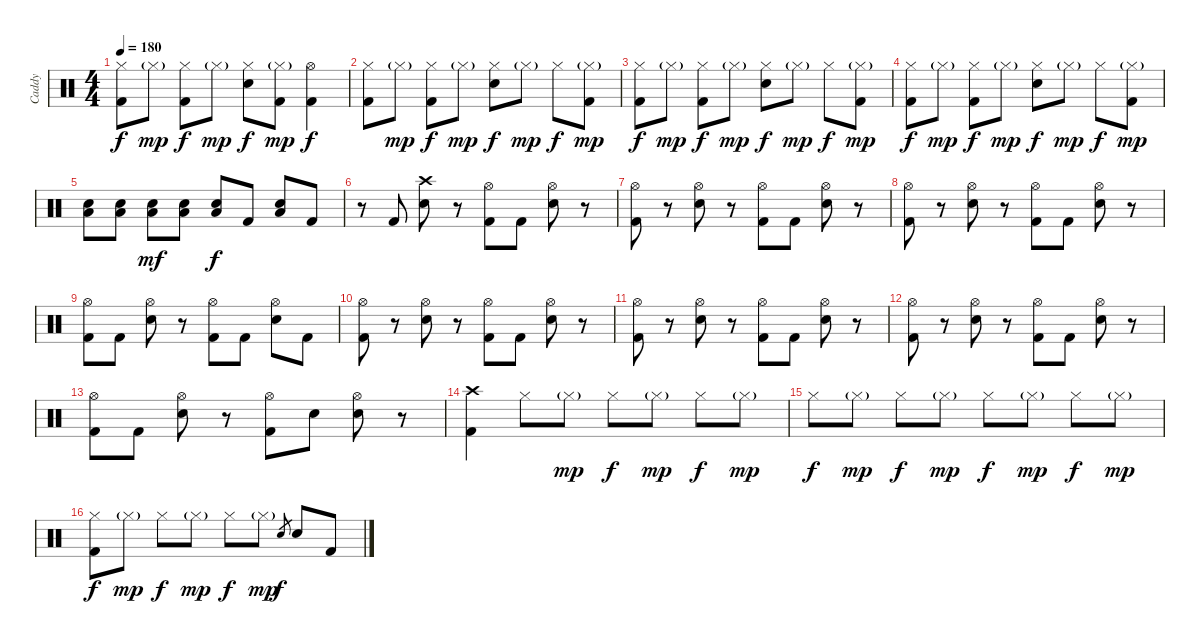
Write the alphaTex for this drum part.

\track ("Caddy" "Caddy") {instrument percussion}
\staff {score}
\articulation defaults
\ts (4 4)
\tempo 180
\clef neutral
\ks c
("Hi-Hat (closed)" "Kick (hit) 2").8{dy f} "Hi-Hat (closed)"{g}.8{dy mp} ("Hi-Hat (closed)" "Kick (hit) 2").8{dy f} "Hi-Hat (closed)"{g}.8{dy mp} ("Hi-Hat (closed)" "Electric Snare (hit)").8{dy f} ("Hi-Hat (closed)"{g} "Kick (hit) 2").8{dy mp} ("Hi-Hat (open)" "Kick (hit) 2").4{dy f} |
("Hi-Hat (closed)" "Kick (hit) 2").8 "Hi-Hat (closed)"{g}.8{dy mp} ("Hi-Hat (closed)" "Kick (hit) 2").8{dy f} "Hi-Hat (closed)"{g}.8{dy mp} ("Hi-Hat (closed)" "Electric Snare (hit)").8{dy f} "Hi-Hat (closed)"{g}.8{dy mp} "Hi-Hat (closed)".8{dy f} ("Hi-Hat (closed)"{g} "Kick (hit) 2").8{dy mp} |
("Hi-Hat (closed)" "Kick (hit) 2").8{dy f} "Hi-Hat (closed)"{g}.8{dy mp} ("Hi-Hat (closed)" "Kick (hit) 2").8{dy f} "Hi-Hat (closed)"{g}.8{dy mp} ("Hi-Hat (closed)" "Electric Snare (hit)").8{dy f} "Hi-Hat (closed)"{g}.8{dy mp} "Hi-Hat (closed)".8{dy f} ("Hi-Hat (closed)"{g} "Kick (hit) 2").8{dy mp} |
("Hi-Hat (closed)" "Kick (hit) 2").8{dy f} "Hi-Hat (closed)"{g}.8{dy mp} ("Hi-Hat (closed)" "Kick (hit) 2").8{dy f} "Hi-Hat (closed)"{g}.8{dy mp} ("Hi-Hat (closed)" "Electric Snare (hit)").8{dy f} "Hi-Hat (closed)"{g}.8{dy mp} "Hi-Hat (closed)".8{dy f} ("Hi-Hat (closed)"{g} "Kick (hit) 2").8{dy mp} |
("Electric Snare (hit)" "Low Floor Tom (hit)").8 ("Electric Snare (hit)" "Low Floor Tom (hit)").8 ("Electric Snare (hit)" "Low Floor Tom (hit)").8{dy mf} ("Electric Snare (hit)" "Low Floor Tom (hit)").8 ("Electric Snare (hit)" "Low Floor Tom (hit)").8{dy f} "Kick (hit) 2".8 ("Electric Snare (hit)" "Low Floor Tom (hit)").8 "Kick (hit) 2".8 |
r.8 "Kick (hit) 2".8 ("Crash high (hit)" "Electric Snare (hit)").8 r.8 ("Hi-Hat (open)" "Kick (hit) 2").8 "Kick (hit) 2".8 ("Hi-Hat (open)" "Electric Snare (hit)").8 r.8 |
("Hi-Hat (open)" "Kick (hit) 2").8 r.8 ("Hi-Hat (open)" "Electric Snare (hit)").8 r.8 ("Hi-Hat (open)" "Kick (hit) 2").8 "Kick (hit) 2".8 ("Hi-Hat (open)" "Electric Snare (hit)").8 r.8 |
("Hi-Hat (open)" "Kick (hit) 2").8 r.8 ("Hi-Hat (open)" "Electric Snare (hit)").8 r.8 ("Hi-Hat (open)" "Kick (hit) 2").8 "Kick (hit) 2".8 ("Hi-Hat (open)" "Electric Snare (hit)").8 r.8 |
("Hi-Hat (open)" "Kick (hit) 2").8 "Kick (hit) 2".8 ("Hi-Hat (open)" "Electric Snare (hit)").8 r.8 ("Hi-Hat (open)" "Kick (hit) 2").8 "Kick (hit) 2".8 ("Hi-Hat (open)" "Electric Snare (hit)").8 "Kick (hit) 2".8 |
("Hi-Hat (open)" "Kick (hit) 2").8 r.8 ("Hi-Hat (open)" "Electric Snare (hit)").8 r.8 ("Hi-Hat (open)" "Kick (hit) 2").8 "Kick (hit) 2".8 ("Hi-Hat (open)" "Electric Snare (hit)").8 r.8 |
("Hi-Hat (open)" "Kick (hit) 2").8 r.8 ("Hi-Hat (open)" "Electric Snare (hit)").8 r.8 ("Hi-Hat (open)" "Kick (hit) 2").8 "Kick (hit) 2".8 ("Hi-Hat (open)" "Electric Snare (hit)").8 r.8 |
("Hi-Hat (open)" "Kick (hit) 2").8 r.8 ("Hi-Hat (open)" "Electric Snare (hit)").8 r.8 ("Hi-Hat (open)" "Kick (hit) 2").8 "Kick (hit) 2".8 ("Hi-Hat (open)" "Electric Snare (hit)").8 r.8 |
("Hi-Hat (open)" "Kick (hit) 2").8 "Kick (hit) 2".8 ("Hi-Hat (open)" "Electric Snare (hit)").8 r.8 ("Hi-Hat (open)" "Kick (hit) 2").8 "Electric Snare (hit)".8 ("Hi-Hat (open)" "Electric Snare (hit)").8 r.8 |
("Crash high (hit)" "Kick (hit) 2").4 "Hi-Hat (closed)".8 "Hi-Hat (closed)"{g}.8{dy mp} "Hi-Hat (closed)".8{dy f} "Hi-Hat (closed)"{g}.8{dy mp} "Hi-Hat (closed)".8{dy f} "Hi-Hat (closed)"{g}.8{dy mp} |
"Hi-Hat (closed)".8{dy f} "Hi-Hat (closed)"{g}.8{dy mp} "Hi-Hat (closed)".8{dy f} "Hi-Hat (closed)"{g}.8{dy mp} "Hi-Hat (closed)".8{dy f} "Hi-Hat (closed)"{g}.8{dy mp} "Hi-Hat (closed)".8{dy f} "Hi-Hat (closed)"{g}.8{dy mp} |
("Hi-Hat (closed)" "Kick (hit) 2").8{dy f} "Hi-Hat (closed)"{g}.8{dy mp} "Hi-Hat (closed)".8{dy f} "Hi-Hat (closed)"{g}.8{dy mp} "Hi-Hat (closed)".8{dy f} "Hi-Hat (closed)"{g}.8{dy mp} "Electric Snare (hit)".8{gr dy f} "Electric Snare (hit)".8 "Kick (hit) 2".8
